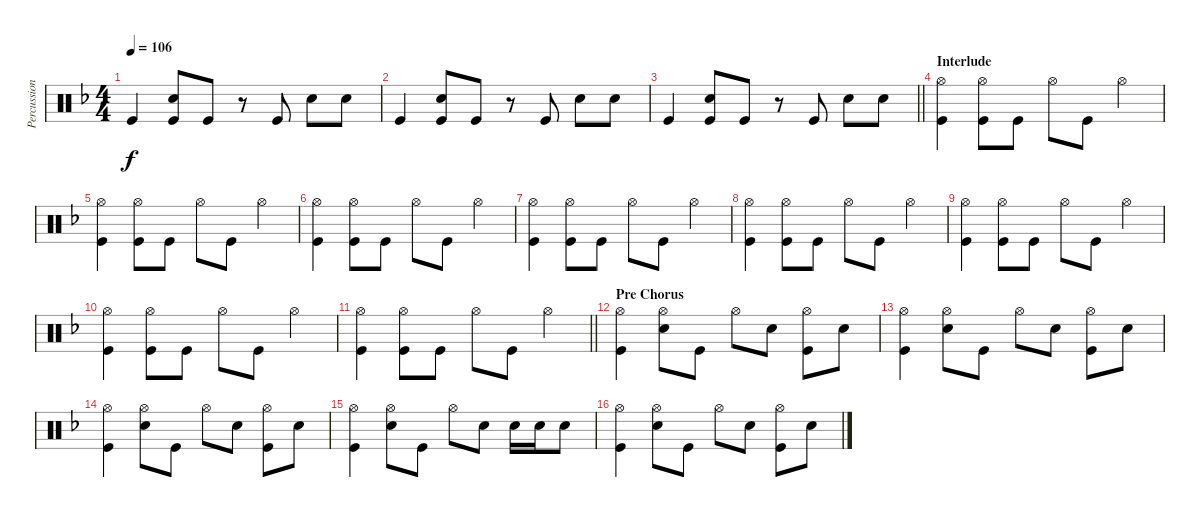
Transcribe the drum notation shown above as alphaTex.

\track ("Percussion" "Percussion") {instrument percussion}
\staff {score}
\articulation defaults
\ts (4 4)
\tempo 106
\clef neutral
\ks dminor "Kick (hit)".4{dy f}
("Hand Clap (hit)" "Kick (hit)").8 "Kick (hit)".8 r.8 "Kick (hit)".8 "Hand Clap (hit)".8 "Hand Clap (hit)".8 |
"Kick (hit)".4 ("Hand Clap (hit)" "Kick (hit)").8 "Kick (hit)".8 r.8 "Kick (hit)".8 "Hand Clap (hit)".8 "Hand Clap (hit)".8 |
\barLineRight lightlight "Kick (hit)".4
("Hand Clap (hit)" "Kick (hit)").8 "Kick (hit)".8 r.8 "Kick (hit)".8 "Hand Clap (hit)".8 "Hand Clap (hit)".8 |
\section ("" "Interlude")
("Hi-Hat (open)" "Kick (hit)").4 ("Hi-Hat (open)" "Kick (hit)").8 "Kick (hit)".8 "Hi-Hat (open)".8 "Kick (hit)".8 "Hi-Hat (open)".4 |
("Hi-Hat (open)" "Kick (hit)").4 ("Hi-Hat (open)" "Kick (hit)").8 "Kick (hit)".8 "Hi-Hat (open)".8 "Kick (hit)".8 "Hi-Hat (open)".4 |
("Hi-Hat (open)" "Kick (hit)").4 ("Hi-Hat (open)" "Kick (hit)").8 "Kick (hit)".8 "Hi-Hat (open)".8 "Kick (hit)".8 "Hi-Hat (open)".4 |
("Hi-Hat (open)" "Kick (hit)").4 ("Hi-Hat (open)" "Kick (hit)").8 "Kick (hit)".8 "Hi-Hat (open)".8 "Kick (hit)".8 "Hi-Hat (open)".4 |
("Hi-Hat (open)" "Kick (hit)").4 ("Hi-Hat (open)" "Kick (hit)").8 "Kick (hit)".8 "Hi-Hat (open)".8 "Kick (hit)".8 "Hi-Hat (open)".4 |
("Hi-Hat (open)" "Kick (hit)").4 ("Hi-Hat (open)" "Kick (hit)").8 "Kick (hit)".8 "Hi-Hat (open)".8 "Kick (hit)".8 "Hi-Hat (open)".4 |
("Hi-Hat (open)" "Kick (hit)").4 ("Hi-Hat (open)" "Kick (hit)").8 "Kick (hit)".8 "Hi-Hat (open)".8 "Kick (hit)".8 "Hi-Hat (open)".4 |
\barLineRight lightlight
("Hi-Hat (open)" "Kick (hit)").4 ("Hi-Hat (open)" "Kick (hit)").8 "Kick (hit)".8 "Hi-Hat (open)".8 "Kick (hit)".8 "Hi-Hat (open)".4 |
\section ("" "Pre Chorus")
("Hi-Hat (open)" "Kick (hit)").4 ("Hi-Hat (open)" "Snare (hit) 2").8 "Kick (hit)".8 "Hi-Hat (open)".8 "Snare (hit) 2".8 ("Hi-Hat (open)" "Kick (hit)").8 "Snare (hit) 2".8 |
("Hi-Hat (open)" "Kick (hit)").4 ("Hi-Hat (open)" "Snare (hit) 2").8 "Kick (hit)".8 "Hi-Hat (open)".8 "Snare (hit) 2".8 ("Hi-Hat (open)" "Kick (hit)").8 "Snare (hit) 2".8 |
("Hi-Hat (open)" "Kick (hit)").4 ("Hi-Hat (open)" "Snare (hit) 2").8 "Kick (hit)".8 "Hi-Hat (open)".8 "Snare (hit) 2".8 ("Hi-Hat (open)" "Kick (hit)").8 "Snare (hit) 2".8 |
("Hi-Hat (open)" "Kick (hit)").4 ("Hi-Hat (open)" "Snare (hit) 2").8 "Kick (hit)".8 "Hi-Hat (open)".8 "Snare (hit) 2".8 "Snare (hit) 2".16 "Snare (hit) 2".16 "Snare (hit) 2".8 |
("Hi-Hat (open)" "Kick (hit)").4 ("Hi-Hat (open)" "Snare (hit) 2").8 "Kick (hit)".8 "Hi-Hat (open)".8 "Snare (hit) 2".8 ("Hi-Hat (open)" "Kick (hit)").8 "Snare (hit) 2".8
